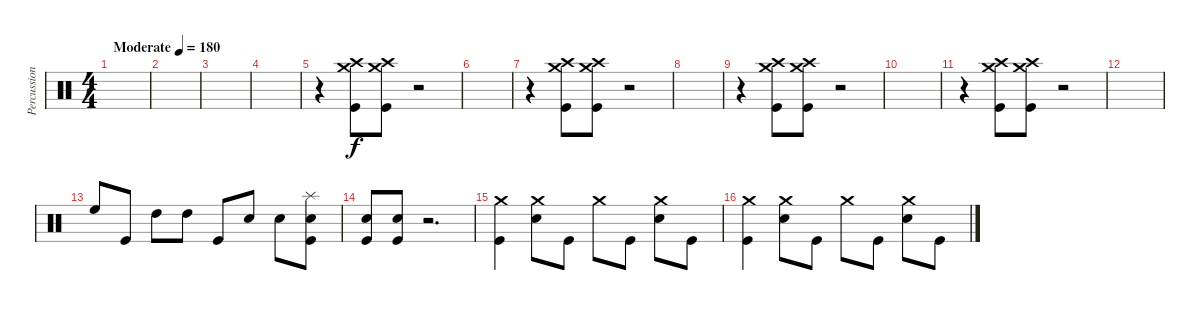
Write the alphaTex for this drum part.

\track ("Percussion" "Percussion") {instrument percussion}
\staff {score}
\articulation defaults
\ts (4 4)
\tempo (180 "Moderate")
\clef neutral
\ks c
|
|
|
|
r.4 ("Crash medium (hit)" "Crash high (hit)" "Kick (hit)").8 ("Crash medium (hit)" "Crash high (hit)" "Kick (hit)").8 r.2 |
|
r.4 ("Crash medium (hit)" "Crash high (hit)" "Kick (hit)").8 ("Crash medium (hit)" "Crash high (hit)" "Kick (hit)").8 r.2 |
|
r.4 ("Crash medium (hit)" "Crash high (hit)" "Kick (hit)").8 ("Crash medium (hit)" "Crash high (hit)" "Kick (hit)").8 r.2 |
|
r.4 ("Crash medium (hit)" "Crash high (hit)" "Kick (hit)").8 ("Crash medium (hit)" "Crash high (hit)" "Kick (hit)").8 r.2 |
|
"High Floor Tom (hit)".8 "Kick (hit)".8 "High Tom (hit)".8 "High Tom (hit)".8 "Kick (hit)".8 "Snare (hit) 2".8 "Snare (hit) 2".8 ("Splash (hit)" "Snare (hit) 2" "Kick (hit)").8 |
("Snare (hit) 2" "Kick (hit)").8 ("Snare (hit) 2" "Kick (hit)").8 r.2{d} |
("Crash medium (hit)" "Kick (hit)").4 ("Crash medium (hit)" "Snare (hit) 2").8 "Kick (hit)".8 "Crash medium (hit)".8 "Kick (hit)".8 ("Crash medium (hit)" "Snare (hit) 2").8 "Kick (hit)".8 |
("Crash medium (hit)" "Kick (hit)").4 ("Crash medium (hit)" "Snare (hit) 2").8 "Kick (hit)".8 "Crash medium (hit)".8 "Kick (hit)".8 ("Crash medium (hit)" "Snare (hit) 2").8 "Kick (hit)".8
